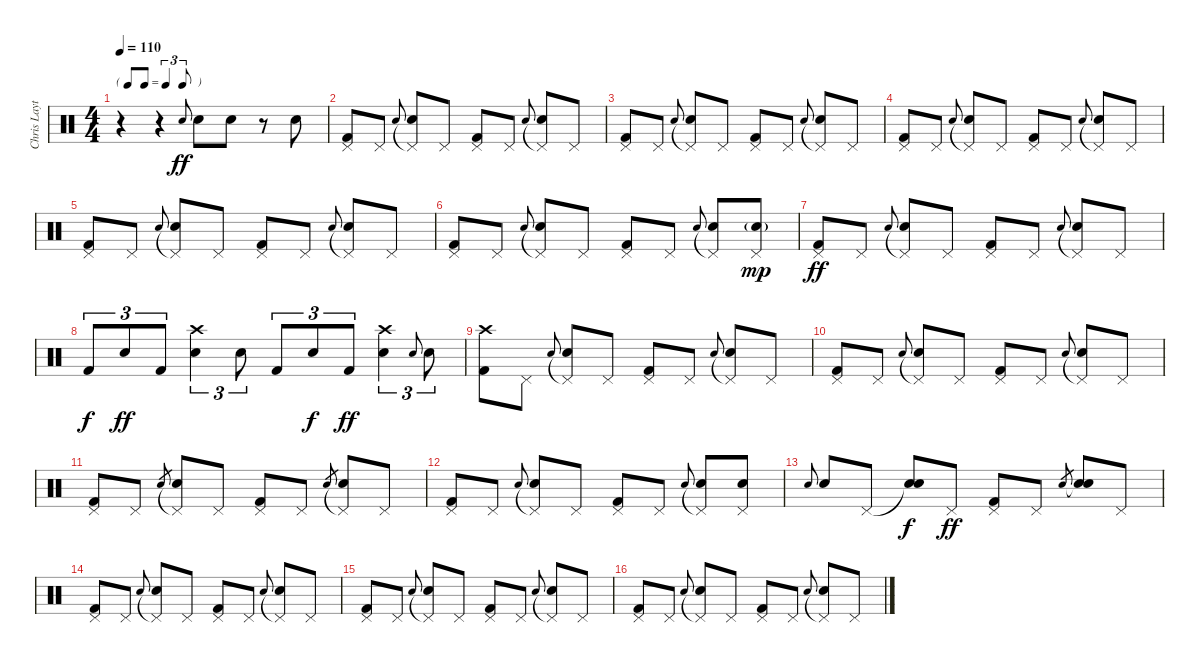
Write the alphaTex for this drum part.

\track ("Chris Layton" "Chris Layt") {instrument percussion}
\staff {score}
\articulation defaults
\ts (4 4)
\tf triplet8th
\tempo 110
\clef neutral
\ks c
r.4{dy ff} r.4 "Snare (hit) 2".8{gr onbeat} "Snare (hit) 2".8 "Snare (hit) 2".8 r.8 "Snare (hit) 2".8 |
("Pedal Hi-Hat (hit)" "Kick (hit) 2").8 "Pedal Hi-Hat (hit)".8 "Snare (hit) 2".8{gr onbeat} ("Pedal Hi-Hat (hit)"{t} "Snare (hit) 2").8 "Pedal Hi-Hat (hit)".8 ("Pedal Hi-Hat (hit)" "Kick (hit) 2").8 "Pedal Hi-Hat (hit)".8 "Snare (hit) 2".8{gr onbeat} ("Pedal Hi-Hat (hit)"{t} "Snare (hit) 2").8 "Pedal Hi-Hat (hit)".8 |
("Pedal Hi-Hat (hit)" "Kick (hit) 2").8 "Pedal Hi-Hat (hit)".8 "Snare (hit) 2".8{gr onbeat} ("Pedal Hi-Hat (hit)"{t} "Snare (hit) 2").8 "Pedal Hi-Hat (hit)".8 ("Pedal Hi-Hat (hit)" "Kick (hit) 2").8 "Pedal Hi-Hat (hit)".8 "Snare (hit) 2".8{gr onbeat} ("Pedal Hi-Hat (hit)"{t} "Snare (hit) 2").8 "Pedal Hi-Hat (hit)".8 |
("Pedal Hi-Hat (hit)" "Kick (hit) 2").8 "Pedal Hi-Hat (hit)".8 "Snare (hit) 2".8{gr onbeat} ("Pedal Hi-Hat (hit)"{t} "Snare (hit) 2").8 "Pedal Hi-Hat (hit)".8 ("Pedal Hi-Hat (hit)" "Kick (hit) 2").8 "Pedal Hi-Hat (hit)".8 "Snare (hit) 2".8{gr onbeat} ("Pedal Hi-Hat (hit)"{t} "Snare (hit) 2").8 "Pedal Hi-Hat (hit)".8 |
("Pedal Hi-Hat (hit)" "Kick (hit) 2").8 "Pedal Hi-Hat (hit)".8 "Snare (hit) 2".8{gr onbeat} ("Pedal Hi-Hat (hit)"{t} "Snare (hit) 2").8 "Pedal Hi-Hat (hit)".8 ("Pedal Hi-Hat (hit)" "Kick (hit) 2").8 "Pedal Hi-Hat (hit)".8 "Snare (hit) 2".8{gr onbeat} ("Pedal Hi-Hat (hit)"{t} "Snare (hit) 2").8 "Pedal Hi-Hat (hit)".8 |
("Pedal Hi-Hat (hit)" "Kick (hit) 2").8 "Pedal Hi-Hat (hit)".8 "Snare (hit) 2".8{gr onbeat} ("Pedal Hi-Hat (hit)"{t} "Snare (hit) 2").8 "Pedal Hi-Hat (hit)".8 ("Pedal Hi-Hat (hit)" "Kick (hit) 2").8 "Pedal Hi-Hat (hit)".8 "Snare (hit) 2".8{gr onbeat} ("Pedal Hi-Hat (hit)"{t} "Snare (hit) 2").8 ("Pedal Hi-Hat (hit)" "Snare (hit) 2"{g}).8{dy mp} |
("Pedal Hi-Hat (hit)" "Kick (hit) 2").8{dy ff} "Pedal Hi-Hat (hit)".8 "Snare (hit) 2".8{gr onbeat} ("Pedal Hi-Hat (hit)"{t} "Snare (hit) 2").8 "Pedal Hi-Hat (hit)".8 ("Pedal Hi-Hat (hit)" "Kick (hit) 2").8 "Pedal Hi-Hat (hit)".8 "Snare (hit) 2".8{gr onbeat} ("Pedal Hi-Hat (hit)"{t} "Snare (hit) 2").8 "Pedal Hi-Hat (hit)".8 |
"Kick (hit) 2".8{tu (3 2) dy f} "Snare (hit) 2".8{tu (3 2) dy ff} "Kick (hit) 2".8{tu (3 2)} ("Crash high (hit)" "Snare (hit) 2").4{tu (3 2)} "Snare (hit) 2".8{tu (3 2)} "Kick (hit) 2".8{tu (3 2)} "Snare (hit) 2".8{tu (3 2) dy f} "Kick (hit) 2".8{tu (3 2) dy ff} ("Crash high (hit)" "Snare (hit) 2").4{tu (3 2)} "Snare (hit) 2".8{gr onbeat} "Snare (hit) 2".8{tu (3 2)} |
("Crash high (hit)" "Kick (hit) 2").8 "Pedal Hi-Hat (hit)".8 "Snare (hit) 2".8{gr onbeat} ("Pedal Hi-Hat (hit)"{t} "Snare (hit) 2").8 "Pedal Hi-Hat (hit)".8 ("Pedal Hi-Hat (hit)" "Kick (hit) 2").8 "Pedal Hi-Hat (hit)".8 "Snare (hit) 2".8{gr onbeat} ("Pedal Hi-Hat (hit)"{t} "Snare (hit) 2").8 "Pedal Hi-Hat (hit)".8 |
("Pedal Hi-Hat (hit)" "Kick (hit) 2").8 "Pedal Hi-Hat (hit)".8 "Snare (hit) 2".8{gr onbeat} ("Pedal Hi-Hat (hit)"{t} "Snare (hit) 2").8 "Pedal Hi-Hat (hit)".8 ("Pedal Hi-Hat (hit)" "Kick (hit) 2").8 "Pedal Hi-Hat (hit)".8 "Snare (hit) 2".8{gr onbeat} ("Pedal Hi-Hat (hit)"{t} "Snare (hit) 2").8 "Pedal Hi-Hat (hit)".8 |
("Pedal Hi-Hat (hit)" "Kick (hit) 2").8 "Pedal Hi-Hat (hit)".8 "Snare (hit) 2".8{gr} ("Pedal Hi-Hat (hit)"{t} "Snare (hit) 2").8 "Pedal Hi-Hat (hit)".8 ("Pedal Hi-Hat (hit)" "Kick (hit) 2").8 "Pedal Hi-Hat (hit)".8 "Snare (hit) 2".8{gr} ("Pedal Hi-Hat (hit)"{t} "Snare (hit) 2").8 "Pedal Hi-Hat (hit)".8 |
("Pedal Hi-Hat (hit)" "Kick (hit) 2").8 "Pedal Hi-Hat (hit)".8 "Snare (hit) 2".8{gr onbeat} ("Pedal Hi-Hat (hit)"{t} "Snare (hit) 2").8 "Pedal Hi-Hat (hit)".8 ("Pedal Hi-Hat (hit)" "Kick (hit) 2").8 "Pedal Hi-Hat (hit)".8 "Snare (hit) 2".8{gr onbeat} ("Pedal Hi-Hat (hit)"{t} "Snare (hit) 2").8 ("Pedal Hi-Hat (hit)" "Snare (hit) 2").8 |
"Snare (hit) 2".8{gr onbeat} "Snare (hit) 2".8 "Pedal Hi-Hat (hit)".8 ("Snare (hit)"{t} "Snare (hit) 2").8{dy f} "Pedal Hi-Hat (hit)".8{dy ff} ("Pedal Hi-Hat (hit)" "Kick (hit) 2").8 "Pedal Hi-Hat (hit)".8 "Snare (hit) 2".8{gr} ("Snare (hit)"{t} "Snare (hit) 2").8 "Pedal Hi-Hat (hit)".8 |
("Pedal Hi-Hat (hit)" "Kick (hit) 2").8 "Pedal Hi-Hat (hit)".8 "Snare (hit) 2".8{gr onbeat} ("Pedal Hi-Hat (hit)"{t} "Snare (hit) 2").8 "Pedal Hi-Hat (hit)".8 ("Pedal Hi-Hat (hit)" "Kick (hit) 2").8 "Pedal Hi-Hat (hit)".8 "Snare (hit) 2".8{gr onbeat} ("Pedal Hi-Hat (hit)"{t} "Snare (hit) 2").8 "Pedal Hi-Hat (hit)".8 |
("Pedal Hi-Hat (hit)" "Kick (hit) 2").8 "Pedal Hi-Hat (hit)".8 "Snare (hit) 2".8{gr onbeat} ("Pedal Hi-Hat (hit)"{t} "Snare (hit) 2").8 "Pedal Hi-Hat (hit)".8 ("Pedal Hi-Hat (hit)" "Kick (hit) 2").8 "Pedal Hi-Hat (hit)".8 "Snare (hit) 2".8{gr onbeat} ("Pedal Hi-Hat (hit)"{t} "Snare (hit) 2").8 "Pedal Hi-Hat (hit)".8 |
("Pedal Hi-Hat (hit)" "Kick (hit) 2").8 "Pedal Hi-Hat (hit)".8 "Snare (hit) 2".8{gr onbeat} ("Pedal Hi-Hat (hit)"{t} "Snare (hit) 2").8 "Pedal Hi-Hat (hit)".8 ("Pedal Hi-Hat (hit)" "Kick (hit) 2").8 "Pedal Hi-Hat (hit)".8 "Snare (hit) 2".8{gr onbeat} ("Pedal Hi-Hat (hit)"{t} "Snare (hit) 2").8 "Pedal Hi-Hat (hit)".8
